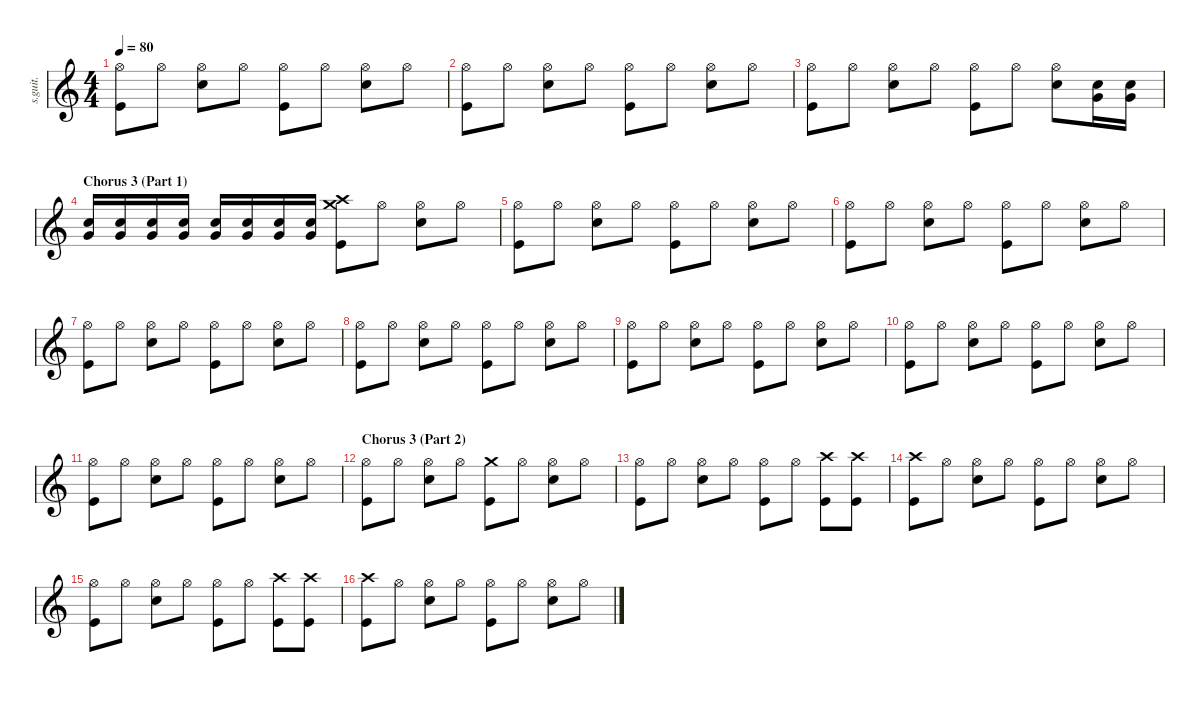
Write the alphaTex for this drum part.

\defaultSystemsLayout 4
\hideDynamics
\bracketExtendMode nobrackets
\track ("Drums (Wilson)" "s.guit.") {instrument percussion}
\staff {score}
\articulation defaults
\ts (4 4)
\tempo 80
\clef g2
\ks c
("Hi-Hat (open)" "Kick (hit)").8{lyrics (0 "") lyrics (1 "") lyrics (2 "") lyrics (3 "") lyrics (4 "") dy f} "Hi-Hat (open)".8{lyrics (0 "") lyrics (1 "") lyrics (2 "") lyrics (3 "") lyrics (4 "")} ("Hi-Hat (open)" "Snare (hit) 2").8{lyrics (0 "") lyrics (1 "") lyrics (2 "") lyrics (3 "") lyrics (4 "")} "Hi-Hat (open)".8{lyrics (0 "") lyrics (1 "") lyrics (2 "") lyrics (3 "") lyrics (4 "")} ("Hi-Hat (open)" "Kick (hit)").8{lyrics (0 "") lyrics (1 "") lyrics (2 "") lyrics (3 "") lyrics (4 "")} "Hi-Hat (open)".8{lyrics (0 "") lyrics (1 "") lyrics (2 "") lyrics (3 "") lyrics (4 "")} ("Hi-Hat (open)" "Snare (hit) 2").8{lyrics (0 "") lyrics (1 "") lyrics (2 "") lyrics (3 "") lyrics (4 "")} "Hi-Hat (open)".8{lyrics (0 "") lyrics (1 "") lyrics (2 "") lyrics (3 "") lyrics (4 "")} |
("Hi-Hat (open)" "Kick (hit)").8{lyrics (0 "") lyrics (1 "") lyrics (2 "") lyrics (3 "") lyrics (4 "")} "Hi-Hat (open)".8{lyrics (0 "") lyrics (1 "") lyrics (2 "") lyrics (3 "") lyrics (4 "")} ("Hi-Hat (open)" "Snare (hit) 2").8{lyrics (0 "") lyrics (1 "") lyrics (2 "") lyrics (3 "") lyrics (4 "")} "Hi-Hat (open)".8{lyrics (0 "") lyrics (1 "") lyrics (2 "") lyrics (3 "") lyrics (4 "")} ("Hi-Hat (open)" "Kick (hit)").8{lyrics (0 "") lyrics (1 "") lyrics (2 "") lyrics (3 "") lyrics (4 "")} "Hi-Hat (open)".8{lyrics (0 "") lyrics (1 "") lyrics (2 "") lyrics (3 "") lyrics (4 "")} ("Hi-Hat (open)" "Snare (hit) 2").8{lyrics (0 "") lyrics (1 "") lyrics (2 "") lyrics (3 "") lyrics (4 "")} "Hi-Hat (open)".8{lyrics (0 "") lyrics (1 "") lyrics (2 "") lyrics (3 "") lyrics (4 "")} |
("Hi-Hat (open)" "Kick (hit)").8{lyrics (0 "") lyrics (1 "") lyrics (2 "") lyrics (3 "") lyrics (4 "")} "Hi-Hat (open)".8{lyrics (0 "") lyrics (1 "") lyrics (2 "") lyrics (3 "") lyrics (4 "")} ("Hi-Hat (open)" "Snare (hit) 2").8{lyrics (0 "") lyrics (1 "") lyrics (2 "") lyrics (3 "") lyrics (4 "")} "Hi-Hat (open)".8{lyrics (0 "") lyrics (1 "") lyrics (2 "") lyrics (3 "") lyrics (4 "")} ("Hi-Hat (open)" "Kick (hit)").8{lyrics (0 "") lyrics (1 "") lyrics (2 "") lyrics (3 "") lyrics (4 "")} "Hi-Hat (open)".8{lyrics (0 "") lyrics (1 "") lyrics (2 "") lyrics (3 "") lyrics (4 "")} ("Hi-Hat (open)" "Snare (hit) 2").8{lyrics (0 "") lyrics (1 "") lyrics (2 "") lyrics (3 "") lyrics (4 "")} ("Very Low Tom (hit)" "Snare (hit) 2").16{lyrics (0 "") lyrics (1 "") lyrics (2 "") lyrics (3 "") lyrics (4 "") dy p} ("Very Low Tom (hit)" "Snare (hit) 2").16{lyrics (0 "") lyrics (1 "") lyrics (2 "") lyrics (3 "") lyrics (4 "")} |
\section ("" "Chorus 3 (Part 1)")
("Very Low Tom (hit)" "Snare (hit) 2").16{lyrics (0 "") lyrics (1 "") lyrics (2 "") lyrics (3 "") lyrics (4 "") dy mp} ("Very Low Tom (hit)" "Snare (hit) 2").16{lyrics (0 "") lyrics (1 "") lyrics (2 "") lyrics (3 "") lyrics (4 "")} ("Very Low Tom (hit)" "Snare (hit) 2").16{lyrics (0 "") lyrics (1 "") lyrics (2 "") lyrics (3 "") lyrics (4 "")} ("Very Low Tom (hit)" "Snare (hit) 2").16{lyrics (0 "") lyrics (1 "") lyrics (2 "") lyrics (3 "") lyrics (4 "")} ("Very Low Tom (hit)" "Snare (hit) 2").16{lyrics (0 "") lyrics (1 "") lyrics (2 "") lyrics (3 "") lyrics (4 "") dy mf} ("Very Low Tom (hit)" "Snare (hit) 2").16{lyrics (0 "") lyrics (1 "") lyrics (2 "") lyrics (3 "") lyrics (4 "")} ("Very Low Tom (hit)" "Snare (hit) 2").16{lyrics (0 "") lyrics (1 "") lyrics (2 "") lyrics (3 "") lyrics (4 "") dy f} ("Very Low Tom (hit)" "Snare (hit) 2").16{lyrics (0 "") lyrics (1 "") lyrics (2 "") lyrics (3 "") lyrics (4 "")} ("Crash medium (hit)" "Crash high (hit)" "Kick (hit)").8{lyrics (0 "") lyrics (1 "") lyrics (2 "") lyrics (3 "") lyrics (4 "")} "Hi-Hat (open)".8{lyrics (0 "") lyrics (1 "") lyrics (2 "") lyrics (3 "") lyrics (4 "")} ("Hi-Hat (open)" "Snare (hit) 2").8{lyrics (0 "") lyrics (1 "") lyrics (2 "") lyrics (3 "") lyrics (4 "")} "Hi-Hat (open)".8{lyrics (0 "") lyrics (1 "") lyrics (2 "") lyrics (3 "") lyrics (4 "")} |
("Hi-Hat (open)" "Kick (hit)").8{lyrics (0 "") lyrics (1 "") lyrics (2 "") lyrics (3 "") lyrics (4 "")} "Hi-Hat (open)".8{lyrics (0 "") lyrics (1 "") lyrics (2 "") lyrics (3 "") lyrics (4 "")} ("Hi-Hat (open)" "Snare (hit) 2").8{lyrics (0 "") lyrics (1 "") lyrics (2 "") lyrics (3 "") lyrics (4 "")} "Hi-Hat (open)".8{lyrics (0 "") lyrics (1 "") lyrics (2 "") lyrics (3 "") lyrics (4 "")} ("Hi-Hat (open)" "Kick (hit)").8{lyrics (0 "") lyrics (1 "") lyrics (2 "") lyrics (3 "") lyrics (4 "")} "Hi-Hat (open)".8{lyrics (0 "") lyrics (1 "") lyrics (2 "") lyrics (3 "") lyrics (4 "")} ("Hi-Hat (open)" "Snare (hit) 2").8{lyrics (0 "") lyrics (1 "") lyrics (2 "") lyrics (3 "") lyrics (4 "")} "Hi-Hat (open)".8{lyrics (0 "") lyrics (1 "") lyrics (2 "") lyrics (3 "") lyrics (4 "")} |
("Hi-Hat (open)" "Kick (hit)").8{lyrics (0 "") lyrics (1 "") lyrics (2 "") lyrics (3 "") lyrics (4 "")} "Hi-Hat (open)".8{lyrics (0 "") lyrics (1 "") lyrics (2 "") lyrics (3 "") lyrics (4 "")} ("Hi-Hat (open)" "Snare (hit) 2").8{lyrics (0 "") lyrics (1 "") lyrics (2 "") lyrics (3 "") lyrics (4 "")} "Hi-Hat (open)".8{lyrics (0 "") lyrics (1 "") lyrics (2 "") lyrics (3 "") lyrics (4 "")} ("Hi-Hat (open)" "Kick (hit)").8{lyrics (0 "") lyrics (1 "") lyrics (2 "") lyrics (3 "") lyrics (4 "")} "Hi-Hat (open)".8{lyrics (0 "") lyrics (1 "") lyrics (2 "") lyrics (3 "") lyrics (4 "")} ("Hi-Hat (open)" "Snare (hit) 2").8{lyrics (0 "") lyrics (1 "") lyrics (2 "") lyrics (3 "") lyrics (4 "")} "Hi-Hat (open)".8{lyrics (0 "") lyrics (1 "") lyrics (2 "") lyrics (3 "") lyrics (4 "")} |
("Hi-Hat (open)" "Kick (hit)").8{lyrics (0 "") lyrics (1 "") lyrics (2 "") lyrics (3 "") lyrics (4 "")} "Hi-Hat (open)".8{lyrics (0 "") lyrics (1 "") lyrics (2 "") lyrics (3 "") lyrics (4 "")} ("Hi-Hat (open)" "Snare (hit) 2").8{lyrics (0 "") lyrics (1 "") lyrics (2 "") lyrics (3 "") lyrics (4 "")} "Hi-Hat (open)".8{lyrics (0 "") lyrics (1 "") lyrics (2 "") lyrics (3 "") lyrics (4 "")} ("Hi-Hat (open)" "Kick (hit)").8{lyrics (0 "") lyrics (1 "") lyrics (2 "") lyrics (3 "") lyrics (4 "")} "Hi-Hat (open)".8{lyrics (0 "") lyrics (1 "") lyrics (2 "") lyrics (3 "") lyrics (4 "")} ("Hi-Hat (open)" "Snare (hit) 2").8{lyrics (0 "") lyrics (1 "") lyrics (2 "") lyrics (3 "") lyrics (4 "")} "Hi-Hat (open)".8{lyrics (0 "") lyrics (1 "") lyrics (2 "") lyrics (3 "") lyrics (4 "")} |
("Hi-Hat (open)" "Kick (hit)").8{lyrics (0 "") lyrics (1 "") lyrics (2 "") lyrics (3 "") lyrics (4 "")} "Hi-Hat (open)".8{lyrics (0 "") lyrics (1 "") lyrics (2 "") lyrics (3 "") lyrics (4 "")} ("Hi-Hat (open)" "Snare (hit) 2").8{lyrics (0 "") lyrics (1 "") lyrics (2 "") lyrics (3 "") lyrics (4 "")} "Hi-Hat (open)".8{lyrics (0 "") lyrics (1 "") lyrics (2 "") lyrics (3 "") lyrics (4 "")} ("Hi-Hat (open)" "Kick (hit)").8{lyrics (0 "") lyrics (1 "") lyrics (2 "") lyrics (3 "") lyrics (4 "")} "Hi-Hat (open)".8{lyrics (0 "") lyrics (1 "") lyrics (2 "") lyrics (3 "") lyrics (4 "")} ("Hi-Hat (open)" "Snare (hit) 2").8{lyrics (0 "") lyrics (1 "") lyrics (2 "") lyrics (3 "") lyrics (4 "")} "Hi-Hat (open)".8{lyrics (0 "") lyrics (1 "") lyrics (2 "") lyrics (3 "") lyrics (4 "")} |
("Hi-Hat (open)" "Kick (hit)").8{lyrics (0 "") lyrics (1 "") lyrics (2 "") lyrics (3 "") lyrics (4 "")} "Hi-Hat (open)".8{lyrics (0 "") lyrics (1 "") lyrics (2 "") lyrics (3 "") lyrics (4 "")} ("Hi-Hat (open)" "Snare (hit) 2").8{lyrics (0 "") lyrics (1 "") lyrics (2 "") lyrics (3 "") lyrics (4 "")} "Hi-Hat (open)".8{lyrics (0 "") lyrics (1 "") lyrics (2 "") lyrics (3 "") lyrics (4 "")} ("Hi-Hat (open)" "Kick (hit)").8{lyrics (0 "") lyrics (1 "") lyrics (2 "") lyrics (3 "") lyrics (4 "")} "Hi-Hat (open)".8{lyrics (0 "") lyrics (1 "") lyrics (2 "") lyrics (3 "") lyrics (4 "")} ("Hi-Hat (open)" "Snare (hit) 2").8{lyrics (0 "") lyrics (1 "") lyrics (2 "") lyrics (3 "") lyrics (4 "")} "Hi-Hat (open)".8{lyrics (0 "") lyrics (1 "") lyrics (2 "") lyrics (3 "") lyrics (4 "")} |
("Hi-Hat (open)" "Kick (hit)").8{lyrics (0 "") lyrics (1 "") lyrics (2 "") lyrics (3 "") lyrics (4 "")} "Hi-Hat (open)".8{lyrics (0 "") lyrics (1 "") lyrics (2 "") lyrics (3 "") lyrics (4 "")} ("Hi-Hat (open)" "Snare (hit) 2").8{lyrics (0 "") lyrics (1 "") lyrics (2 "") lyrics (3 "") lyrics (4 "")} "Hi-Hat (open)".8{lyrics (0 "") lyrics (1 "") lyrics (2 "") lyrics (3 "") lyrics (4 "")} ("Hi-Hat (open)" "Kick (hit)").8{lyrics (0 "") lyrics (1 "") lyrics (2 "") lyrics (3 "") lyrics (4 "")} "Hi-Hat (open)".8{lyrics (0 "") lyrics (1 "") lyrics (2 "") lyrics (3 "") lyrics (4 "")} ("Hi-Hat (open)" "Snare (hit) 2").8{lyrics (0 "") lyrics (1 "") lyrics (2 "") lyrics (3 "") lyrics (4 "")} "Hi-Hat (open)".8{lyrics (0 "") lyrics (1 "") lyrics (2 "") lyrics (3 "") lyrics (4 "")} |
("Hi-Hat (open)" "Kick (hit)").8{lyrics (0 "") lyrics (1 "") lyrics (2 "") lyrics (3 "") lyrics (4 "")} "Hi-Hat (open)".8{lyrics (0 "") lyrics (1 "") lyrics (2 "") lyrics (3 "") lyrics (4 "")} ("Hi-Hat (open)" "Snare (hit) 2").8{lyrics (0 "") lyrics (1 "") lyrics (2 "") lyrics (3 "") lyrics (4 "")} "Hi-Hat (open)".8{lyrics (0 "") lyrics (1 "") lyrics (2 "") lyrics (3 "") lyrics (4 "")} ("Hi-Hat (open)" "Kick (hit)").8{lyrics (0 "") lyrics (1 "") lyrics (2 "") lyrics (3 "") lyrics (4 "")} "Hi-Hat (open)".8{lyrics (0 "") lyrics (1 "") lyrics (2 "") lyrics (3 "") lyrics (4 "")} ("Hi-Hat (open)" "Snare (hit) 2").8{lyrics (0 "") lyrics (1 "") lyrics (2 "") lyrics (3 "") lyrics (4 "")} "Hi-Hat (open)".8{lyrics (0 "") lyrics (1 "") lyrics (2 "") lyrics (3 "") lyrics (4 "")} |
\section ("" "Chorus 3 (Part 2)")
("Hi-Hat (open)" "Kick (hit)").8{lyrics (0 "") lyrics (1 "") lyrics (2 "") lyrics (3 "") lyrics (4 "")} "Hi-Hat (open)".8{lyrics (0 "") lyrics (1 "") lyrics (2 "") lyrics (3 "") lyrics (4 "")} ("Hi-Hat (open)" "Snare (hit) 2").8{lyrics (0 "") lyrics (1 "") lyrics (2 "") lyrics (3 "") lyrics (4 "")} "Hi-Hat (open)".8{lyrics (0 "") lyrics (1 "") lyrics (2 "") lyrics (3 "") lyrics (4 "")} ("Crash medium (hit)" "Kick (hit)").8{lyrics (0 "") lyrics (1 "") lyrics (2 "") lyrics (3 "") lyrics (4 "")} "Hi-Hat (open)".8{lyrics (0 "") lyrics (1 "") lyrics (2 "") lyrics (3 "") lyrics (4 "")} ("Hi-Hat (open)" "Snare (hit) 2").8{lyrics (0 "") lyrics (1 "") lyrics (2 "") lyrics (3 "") lyrics (4 "")} "Hi-Hat (open)".8{lyrics (0 "") lyrics (1 "") lyrics (2 "") lyrics (3 "") lyrics (4 "")} |
("Hi-Hat (open)" "Kick (hit)").8{lyrics (0 "") lyrics (1 "") lyrics (2 "") lyrics (3 "") lyrics (4 "")} "Hi-Hat (open)".8{lyrics (0 "") lyrics (1 "") lyrics (2 "") lyrics (3 "") lyrics (4 "")} ("Hi-Hat (open)" "Snare (hit) 2").8{lyrics (0 "") lyrics (1 "") lyrics (2 "") lyrics (3 "") lyrics (4 "")} "Hi-Hat (open)".8{lyrics (0 "") lyrics (1 "") lyrics (2 "") lyrics (3 "") lyrics (4 "")} ("Hi-Hat (open)" "Kick (hit)").8{lyrics (0 "") lyrics (1 "") lyrics (2 "") lyrics (3 "") lyrics (4 "")} "Hi-Hat (open)".8{lyrics (0 "") lyrics (1 "") lyrics (2 "") lyrics (3 "") lyrics (4 "")} ("Crash high (hit)" "Kick (hit)").8{lyrics (0 "") lyrics (1 "") lyrics (2 "") lyrics (3 "") lyrics (4 "")} ("Crash high (hit)" "Kick (hit)").8{lyrics (0 "") lyrics (1 "") lyrics (2 "") lyrics (3 "") lyrics (4 "")} |
("Crash high (hit)" "Kick (hit)").8{lyrics (0 "") lyrics (1 "") lyrics (2 "") lyrics (3 "") lyrics (4 "")} "Hi-Hat (open)".8{lyrics (0 "") lyrics (1 "") lyrics (2 "") lyrics (3 "") lyrics (4 "")} ("Hi-Hat (open)" "Snare (hit) 2").8{lyrics (0 "") lyrics (1 "") lyrics (2 "") lyrics (3 "") lyrics (4 "")} "Hi-Hat (open)".8{lyrics (0 "") lyrics (1 "") lyrics (2 "") lyrics (3 "") lyrics (4 "")} ("Hi-Hat (open)" "Kick (hit)").8{lyrics (0 "") lyrics (1 "") lyrics (2 "") lyrics (3 "") lyrics (4 "")} "Hi-Hat (open)".8{lyrics (0 "") lyrics (1 "") lyrics (2 "") lyrics (3 "") lyrics (4 "")} ("Hi-Hat (open)" "Snare (hit) 2").8{lyrics (0 "") lyrics (1 "") lyrics (2 "") lyrics (3 "") lyrics (4 "")} "Hi-Hat (open)".8{lyrics (0 "") lyrics (1 "") lyrics (2 "") lyrics (3 "") lyrics (4 "")} |
("Hi-Hat (open)" "Kick (hit)").8{lyrics (0 "") lyrics (1 "") lyrics (2 "") lyrics (3 "") lyrics (4 "")} "Hi-Hat (open)".8{lyrics (0 "") lyrics (1 "") lyrics (2 "") lyrics (3 "") lyrics (4 "")} ("Hi-Hat (open)" "Snare (hit) 2").8{lyrics (0 "") lyrics (1 "") lyrics (2 "") lyrics (3 "") lyrics (4 "")} "Hi-Hat (open)".8{lyrics (0 "") lyrics (1 "") lyrics (2 "") lyrics (3 "") lyrics (4 "")} ("Hi-Hat (open)" "Kick (hit)").8{lyrics (0 "") lyrics (1 "") lyrics (2 "") lyrics (3 "") lyrics (4 "")} "Hi-Hat (open)".8{lyrics (0 "") lyrics (1 "") lyrics (2 "") lyrics (3 "") lyrics (4 "")} ("Crash high (hit)" "Kick (hit)").8{lyrics (0 "") lyrics (1 "") lyrics (2 "") lyrics (3 "") lyrics (4 "")} ("Crash high (hit)" "Kick (hit)").8{lyrics (0 "") lyrics (1 "") lyrics (2 "") lyrics (3 "") lyrics (4 "")} |
("Crash high (hit)" "Kick (hit)").8{lyrics (0 "") lyrics (1 "") lyrics (2 "") lyrics (3 "") lyrics (4 "")} "Hi-Hat (open)".8{lyrics (0 "") lyrics (1 "") lyrics (2 "") lyrics (3 "") lyrics (4 "")} ("Hi-Hat (open)" "Snare (hit) 2").8{lyrics (0 "") lyrics (1 "") lyrics (2 "") lyrics (3 "") lyrics (4 "")} "Hi-Hat (open)".8{lyrics (0 "") lyrics (1 "") lyrics (2 "") lyrics (3 "") lyrics (4 "")} ("Hi-Hat (open)" "Kick (hit)").8{lyrics (0 "") lyrics (1 "") lyrics (2 "") lyrics (3 "") lyrics (4 "")} "Hi-Hat (open)".8{lyrics (0 "") lyrics (1 "") lyrics (2 "") lyrics (3 "") lyrics (4 "")} ("Hi-Hat (open)" "Snare (hit) 2").8{lyrics (0 "") lyrics (1 "") lyrics (2 "") lyrics (3 "") lyrics (4 "")} "Hi-Hat (open)".8{lyrics (0 "") lyrics (1 "") lyrics (2 "") lyrics (3 "") lyrics (4 "")}
